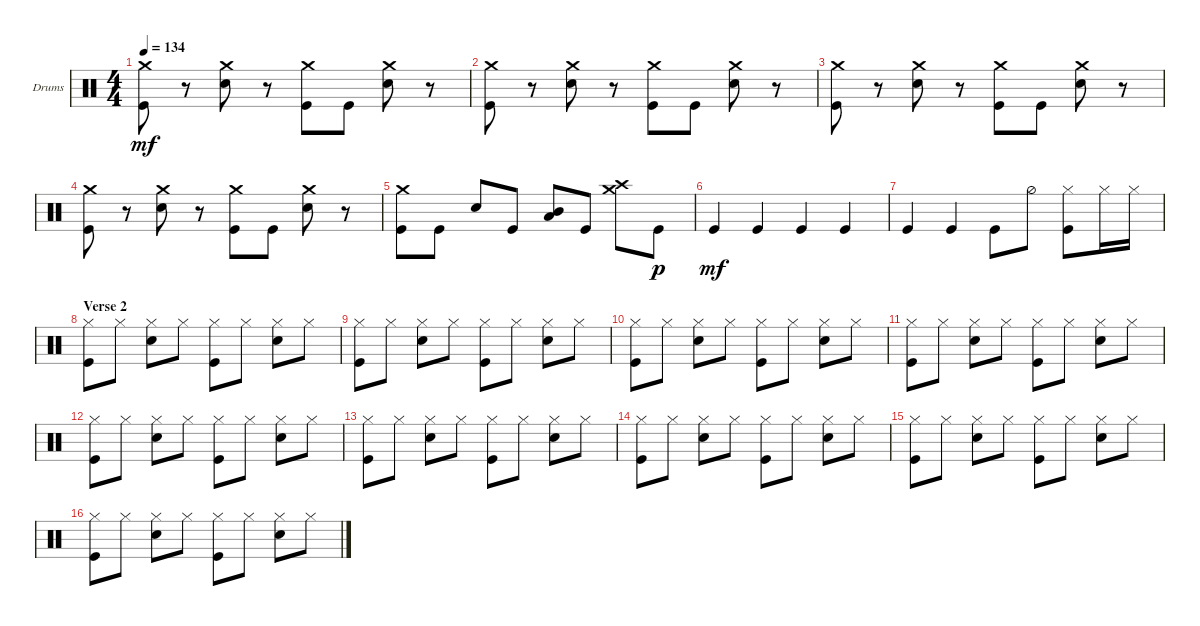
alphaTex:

\defaultSystemsLayout 4
\bracketExtendMode groupsimilarinstruments
\firstSystemTrackNameOrientation horizontal
\otherSystemsTrackNameOrientation horizontal
\track ("Drums" "Drums") {instrument percussion}
\staff {score}
\articulation defaults
\ts (4 4)
\tempo 134
\clef neutral
\ks c
("Kick (hit)" "Crash medium (hit)").8{dy mf} r.8 ("Snare (hit) 2" "Crash medium (hit)").8 r.8 ("Kick (hit)" "Crash medium (hit)").8 "Kick (hit)".8 ("Snare (hit) 2" "Crash medium (hit)").8 r.8 |
("Kick (hit)" "Crash medium (hit)").8 r.8 ("Snare (hit) 2" "Crash medium (hit)").8 r.8 ("Kick (hit)" "Crash medium (hit)").8 "Kick (hit)".8 ("Snare (hit) 2" "Crash medium (hit)").8 r.8 |
("Kick (hit)" "Crash medium (hit)").8 r.8 ("Snare (hit) 2" "Crash medium (hit)").8 r.8 ("Kick (hit)" "Crash medium (hit)").8 "Kick (hit)".8 ("Snare (hit) 2" "Crash medium (hit)").8 r.8 |
("Kick (hit)" "Crash medium (hit)").8 r.8 ("Snare (hit) 2" "Crash medium (hit)").8 r.8 ("Kick (hit)" "Crash medium (hit)").8 "Kick (hit)".8 ("Snare (hit) 2" "Crash medium (hit)").8 r.8 |
("Kick (hit)" "Crash medium (hit)").8 "Kick (hit)".8 "Snare (hit) 2".8 "Kick (hit)".8 ("Low Tom (hit)" "Mid Tom (hit)").8 "Kick (hit)".8 ("Crash medium (hit)" "Crash high (hit)").8 "Kick (hit)".8{dy p} |
"Kick (hit)".4{dy mf} "Kick (hit)".4 "Kick (hit)".4 "Kick (hit)".4 |
"Kick (hit)".4 "Kick (hit)".4 "Kick (hit)".8 "Hi-Hat (half)".8 ("Kick (hit)" "Hi-Hat (closed)").8 "Hi-Hat (closed)".16 "Hi-Hat (closed)".16 |
\section ("" "Verse 2")
("Hi-Hat (closed)" "Kick (hit)").8 "Hi-Hat (closed)".8 ("Hi-Hat (closed)" "Snare (hit) 2").8 "Hi-Hat (closed)".8 ("Hi-Hat (closed)" "Kick (hit)").8 "Hi-Hat (closed)".8 ("Hi-Hat (closed)" "Snare (hit) 2").8 "Hi-Hat (closed)".8 |
("Hi-Hat (closed)" "Kick (hit)").8 "Hi-Hat (closed)".8 ("Hi-Hat (closed)" "Snare (hit) 2").8 "Hi-Hat (closed)".8 ("Hi-Hat (closed)" "Kick (hit)").8 "Hi-Hat (closed)".8 ("Hi-Hat (closed)" "Snare (hit) 2").8 "Hi-Hat (closed)".8 |
("Hi-Hat (closed)" "Kick (hit)").8 "Hi-Hat (closed)".8 ("Hi-Hat (closed)" "Snare (hit) 2").8 "Hi-Hat (closed)".8 ("Hi-Hat (closed)" "Kick (hit)").8 "Hi-Hat (closed)".8 ("Hi-Hat (closed)" "Snare (hit) 2").8 "Hi-Hat (closed)".8 |
("Hi-Hat (closed)" "Kick (hit)").8 "Hi-Hat (closed)".8 ("Hi-Hat (closed)" "Snare (hit) 2").8 "Hi-Hat (closed)".8 ("Hi-Hat (closed)" "Kick (hit)").8 "Hi-Hat (closed)".8 ("Hi-Hat (closed)" "Snare (hit) 2").8 "Hi-Hat (closed)".8 |
("Hi-Hat (closed)" "Kick (hit)").8 "Hi-Hat (closed)".8 ("Hi-Hat (closed)" "Snare (hit) 2").8 "Hi-Hat (closed)".8 ("Hi-Hat (closed)" "Kick (hit)").8 "Hi-Hat (closed)".8 ("Hi-Hat (closed)" "Snare (hit) 2").8 "Hi-Hat (closed)".8 |
("Hi-Hat (closed)" "Kick (hit)").8 "Hi-Hat (closed)".8 ("Hi-Hat (closed)" "Snare (hit) 2").8 "Hi-Hat (closed)".8 ("Hi-Hat (closed)" "Kick (hit)").8 "Hi-Hat (closed)".8 ("Hi-Hat (closed)" "Snare (hit) 2").8 "Hi-Hat (closed)".8 |
("Hi-Hat (closed)" "Kick (hit)").8 "Hi-Hat (closed)".8 ("Hi-Hat (closed)" "Snare (hit) 2").8 "Hi-Hat (closed)".8 ("Hi-Hat (closed)" "Kick (hit)").8 "Hi-Hat (closed)".8 ("Hi-Hat (closed)" "Snare (hit) 2").8 "Hi-Hat (closed)".8 |
("Hi-Hat (closed)" "Kick (hit)").8 "Hi-Hat (closed)".8 ("Hi-Hat (closed)" "Snare (hit) 2").8 "Hi-Hat (closed)".8 ("Hi-Hat (closed)" "Kick (hit)").8 "Hi-Hat (closed)".8 ("Hi-Hat (closed)" "Snare (hit) 2").8 "Hi-Hat (closed)".8 |
("Hi-Hat (closed)" "Kick (hit)").8 "Hi-Hat (closed)".8 ("Hi-Hat (closed)" "Snare (hit) 2").8 "Hi-Hat (closed)".8 ("Hi-Hat (closed)" "Kick (hit)").8 "Hi-Hat (closed)".8 ("Hi-Hat (closed)" "Snare (hit) 2").8 "Hi-Hat (closed)".8
